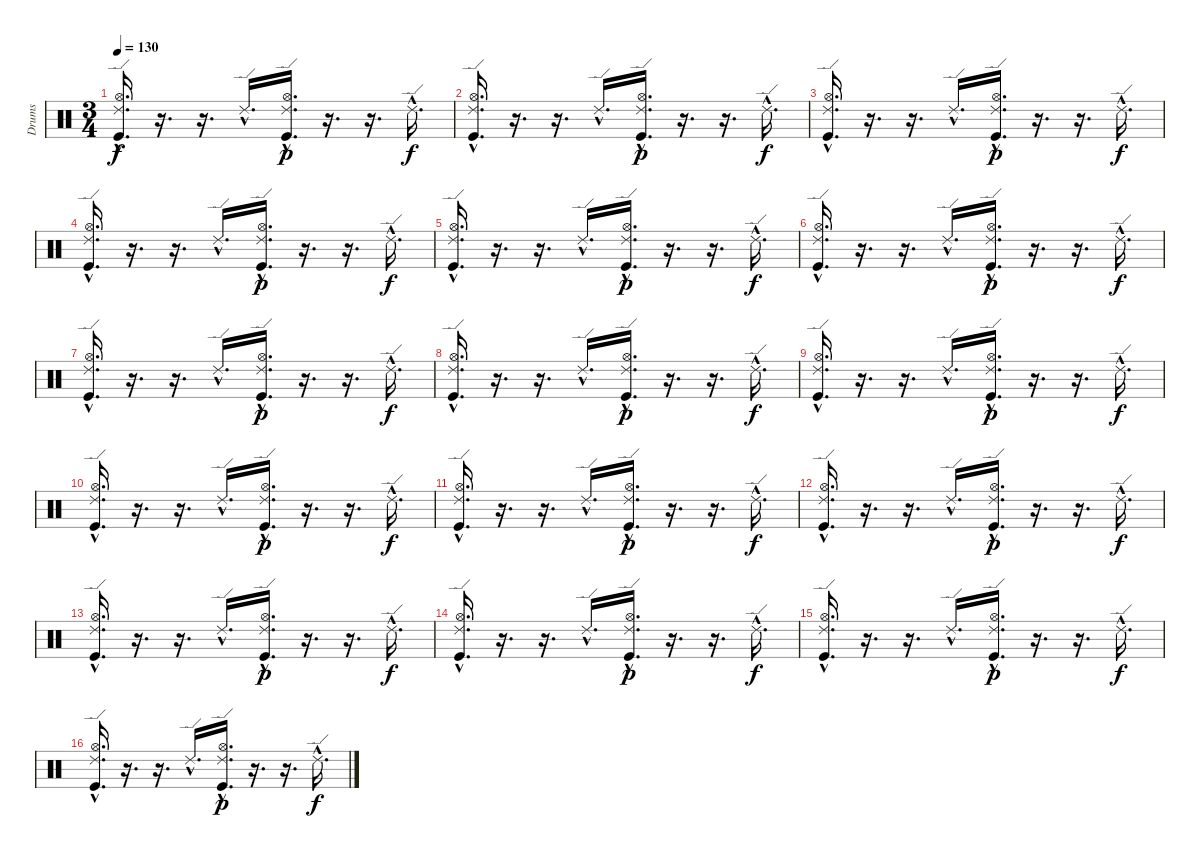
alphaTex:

\track ("Drums" "Drums") {instrument percussion}
\staff {score}
\articulation defaults
\ts (3 4)
\tempo 130
\clef neutral
\ks c
("Ride (edge) 2"{hac} "Hi-Hat (open)"{hac} "Kick (hit)"{hac}).16{d dy f} r.16{d} r.16{d} "Ride (edge) 2"{hac}.16{d} ("Ride (edge) 2"{hac} "Hi-Hat (open)"{hac} "Kick (hit)"{hac}).16{d dy p} r.16{d} r.16{d} "Ride (edge) 2"{hac}.16{d dy f} |
("Ride (edge) 2"{hac} "Hi-Hat (open)"{hac} "Kick (hit)"{hac}).16{d} r.16{d} r.16{d} "Ride (edge) 2"{hac}.16{d} ("Ride (edge) 2"{hac} "Hi-Hat (open)"{hac} "Kick (hit)"{hac}).16{d dy p} r.16{d} r.16{d} "Ride (edge) 2"{hac}.16{d dy f} |
("Ride (edge) 2"{hac} "Hi-Hat (open)"{hac} "Kick (hit)"{hac}).16{d} r.16{d} r.16{d} "Ride (edge) 2"{hac}.16{d} ("Ride (edge) 2"{hac} "Hi-Hat (open)"{hac} "Kick (hit)"{hac}).16{d dy p} r.16{d} r.16{d} "Ride (edge) 2"{hac}.16{d dy f} |
("Ride (edge) 2"{hac} "Hi-Hat (open)"{hac} "Kick (hit)"{hac}).16{d} r.16{d} r.16{d} "Ride (edge) 2"{hac}.16{d} ("Ride (edge) 2"{hac} "Hi-Hat (open)"{hac} "Kick (hit)"{hac}).16{d dy p} r.16{d} r.16{d} "Ride (edge) 2"{hac}.16{d dy f} |
("Ride (edge) 2"{hac} "Hi-Hat (open)"{hac} "Kick (hit)"{hac}).16{d} r.16{d} r.16{d} "Ride (edge) 2"{hac}.16{d} ("Ride (edge) 2"{hac} "Hi-Hat (open)"{hac} "Kick (hit)"{hac}).16{d dy p} r.16{d} r.16{d} "Ride (edge) 2"{hac}.16{d dy f} |
("Ride (edge) 2"{hac} "Hi-Hat (open)"{hac} "Kick (hit)"{hac}).16{d} r.16{d} r.16{d} "Ride (edge) 2"{hac}.16{d} ("Ride (edge) 2"{hac} "Hi-Hat (open)"{hac} "Kick (hit)"{hac}).16{d dy p} r.16{d} r.16{d} "Ride (edge) 2"{hac}.16{d dy f} |
("Ride (edge) 2"{hac} "Hi-Hat (open)"{hac} "Kick (hit)"{hac}).16{d} r.16{d} r.16{d} "Ride (edge) 2"{hac}.16{d} ("Ride (edge) 2"{hac} "Hi-Hat (open)"{hac} "Kick (hit)"{hac}).16{d dy p} r.16{d} r.16{d} "Ride (edge) 2"{hac}.16{d dy f} |
("Ride (edge) 2"{hac} "Hi-Hat (open)"{hac} "Kick (hit)"{hac}).16{d} r.16{d} r.16{d} "Ride (edge) 2"{hac}.16{d} ("Ride (edge) 2"{hac} "Hi-Hat (open)"{hac} "Kick (hit)"{hac}).16{d dy p} r.16{d} r.16{d} "Ride (edge) 2"{hac}.16{d dy f} |
("Ride (edge) 2"{hac} "Hi-Hat (open)"{hac} "Kick (hit)"{hac}).16{d} r.16{d} r.16{d} "Ride (edge) 2"{hac}.16{d} ("Ride (edge) 2"{hac} "Hi-Hat (open)"{hac} "Kick (hit)"{hac}).16{d dy p} r.16{d} r.16{d} "Ride (edge) 2"{hac}.16{d dy f} |
("Ride (edge) 2"{hac} "Hi-Hat (open)"{hac} "Kick (hit)"{hac}).16{d} r.16{d} r.16{d} "Ride (edge) 2"{hac}.16{d} ("Ride (edge) 2"{hac} "Hi-Hat (open)"{hac} "Kick (hit)"{hac}).16{d dy p} r.16{d} r.16{d} "Ride (edge) 2"{hac}.16{d dy f} |
("Ride (edge) 2"{hac} "Hi-Hat (open)"{hac} "Kick (hit)"{hac}).16{d} r.16{d} r.16{d} "Ride (edge) 2"{hac}.16{d} ("Ride (edge) 2"{hac} "Hi-Hat (open)"{hac} "Kick (hit)"{hac}).16{d dy p} r.16{d} r.16{d} "Ride (edge) 2"{hac}.16{d dy f} |
("Ride (edge) 2"{hac} "Hi-Hat (open)"{hac} "Kick (hit)"{hac}).16{d} r.16{d} r.16{d} "Ride (edge) 2"{hac}.16{d} ("Ride (edge) 2"{hac} "Hi-Hat (open)"{hac} "Kick (hit)"{hac}).16{d dy p} r.16{d} r.16{d} "Ride (edge) 2"{hac}.16{d dy f} |
("Ride (edge) 2"{hac} "Hi-Hat (open)"{hac} "Kick (hit)"{hac}).16{d} r.16{d} r.16{d} "Ride (edge) 2"{hac}.16{d} ("Ride (edge) 2"{hac} "Hi-Hat (open)"{hac} "Kick (hit)"{hac}).16{d dy p} r.16{d} r.16{d} "Ride (edge) 2"{hac}.16{d dy f} |
("Ride (edge) 2"{hac} "Hi-Hat (open)"{hac} "Kick (hit)"{hac}).16{d} r.16{d} r.16{d} "Ride (edge) 2"{hac}.16{d} ("Ride (edge) 2"{hac} "Hi-Hat (open)"{hac} "Kick (hit)"{hac}).16{d dy p} r.16{d} r.16{d} "Ride (edge) 2"{hac}.16{d dy f} |
("Ride (edge) 2"{hac} "Hi-Hat (open)"{hac} "Kick (hit)"{hac}).16{d} r.16{d} r.16{d} "Ride (edge) 2"{hac}.16{d} ("Ride (edge) 2"{hac} "Hi-Hat (open)"{hac} "Kick (hit)"{hac}).16{d dy p} r.16{d} r.16{d} "Ride (edge) 2"{hac}.16{d dy f} |
("Ride (edge) 2"{hac} "Hi-Hat (open)"{hac} "Kick (hit)"{hac}).16{d} r.16{d} r.16{d} "Ride (edge) 2"{hac}.16{d} ("Ride (edge) 2"{hac} "Hi-Hat (open)"{hac} "Kick (hit)"{hac}).16{d dy p} r.16{d} r.16{d} "Ride (edge) 2"{hac}.16{d dy f}
